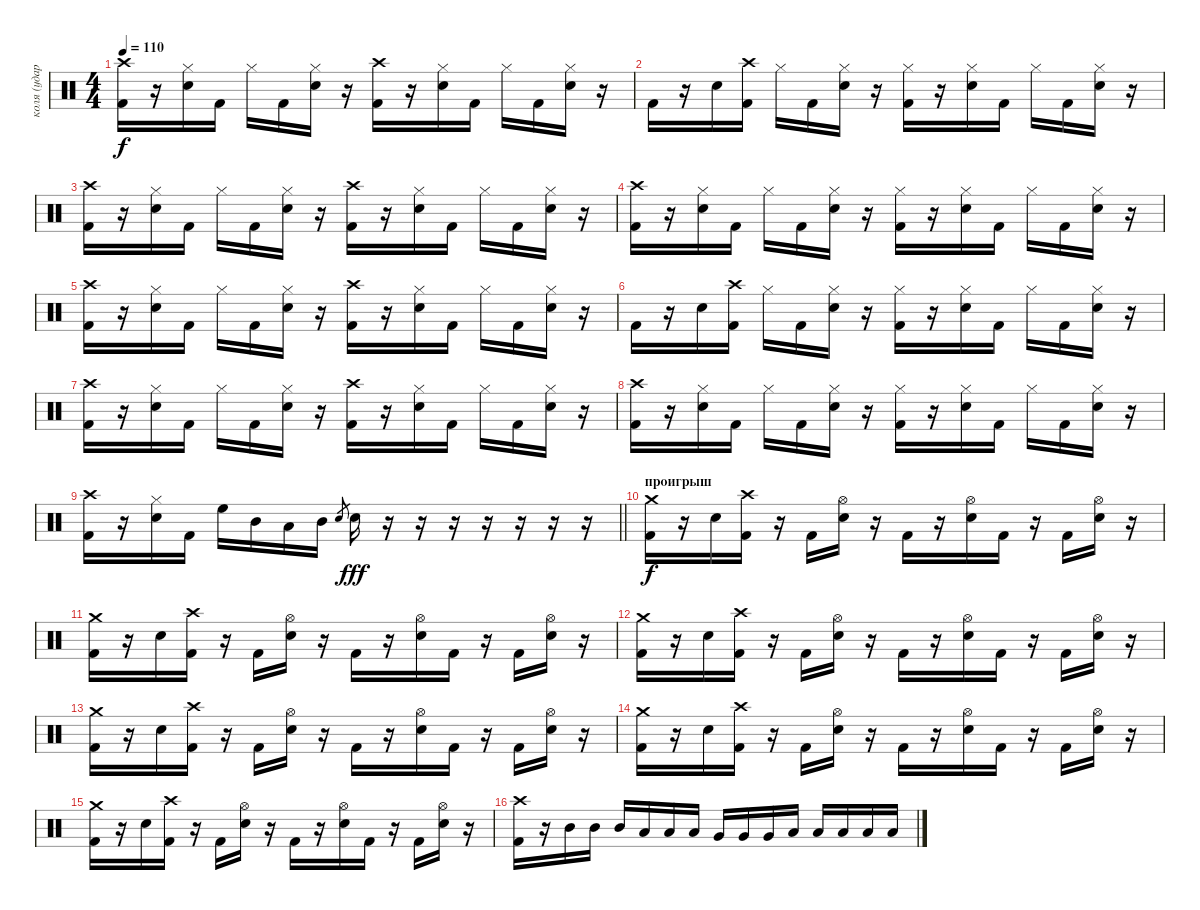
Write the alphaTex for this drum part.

\track ("коля (ударные)" "коля (удар") {instrument percussion}
\staff {score}
\articulation defaults
\ts (4 4)
\tempo 110
\clef neutral
\ks c
("Kick (hit) 2" "Crash high (hit)").16{dy f} r.16 ("Snare (hit) 2" "Hi-Hat (closed)").16 "Kick (hit) 2".16 "Hi-Hat (closed)".16 "Kick (hit) 2".16 ("Snare (hit) 2" "Hi-Hat (closed)").16 r.16 ("Kick (hit) 2" "Crash high (hit)").16 r.16 ("Snare (hit) 2" "Hi-Hat (closed)").16 "Kick (hit) 2".16 "Hi-Hat (closed)".16 "Kick (hit) 2".16 ("Snare (hit) 2" "Hi-Hat (closed)").16 r.16 |
"Kick (hit) 2".16 r.16 "Snare (hit) 2".16 ("Kick (hit) 2" "Crash high (hit)").16 "Hi-Hat (closed)".16 "Kick (hit) 2".16 ("Snare (hit) 2" "Hi-Hat (closed)").16 r.16 ("Kick (hit) 2" "Hi-Hat (closed)").16 r.16 ("Snare (hit) 2" "Hi-Hat (closed)").16 "Kick (hit) 2".16 "Hi-Hat (closed)".16 "Kick (hit) 2".16 ("Snare (hit) 2" "Hi-Hat (closed)").16 r.16 |
("Kick (hit) 2" "Crash high (hit)").16 r.16 ("Snare (hit) 2" "Hi-Hat (closed)").16 "Kick (hit) 2".16 "Hi-Hat (closed)".16 "Kick (hit) 2".16 ("Snare (hit) 2" "Hi-Hat (closed)").16 r.16 ("Kick (hit) 2" "Crash high (hit)").16 r.16 ("Snare (hit) 2" "Hi-Hat (closed)").16 "Kick (hit) 2".16 "Hi-Hat (closed)".16 "Kick (hit) 2".16 ("Snare (hit) 2" "Hi-Hat (closed)").16 r.16 |
("Kick (hit) 2" "Crash high (hit)").16 r.16 ("Snare (hit) 2" "Hi-Hat (closed)").16 "Kick (hit) 2".16 "Hi-Hat (closed)".16 "Kick (hit) 2".16 ("Snare (hit) 2" "Hi-Hat (closed)").16 r.16 ("Kick (hit) 2" "Hi-Hat (closed)").16 r.16 ("Snare (hit) 2" "Hi-Hat (closed)").16 "Kick (hit) 2".16 "Hi-Hat (closed)".16 "Kick (hit) 2".16 ("Snare (hit) 2" "Hi-Hat (closed)").16 r.16 |
("Kick (hit) 2" "Crash high (hit)").16 r.16 ("Snare (hit) 2" "Hi-Hat (closed)").16 "Kick (hit) 2".16 "Hi-Hat (closed)".16 "Kick (hit) 2".16 ("Snare (hit) 2" "Hi-Hat (closed)").16 r.16 ("Kick (hit) 2" "Crash high (hit)").16 r.16 ("Snare (hit) 2" "Hi-Hat (closed)").16 "Kick (hit) 2".16 "Hi-Hat (closed)".16 "Kick (hit) 2".16 ("Snare (hit) 2" "Hi-Hat (closed)").16 r.16 |
"Kick (hit) 2".16 r.16 "Snare (hit) 2".16 ("Kick (hit) 2" "Crash high (hit)").16 "Hi-Hat (closed)".16 "Kick (hit) 2".16 ("Snare (hit) 2" "Hi-Hat (closed)").16 r.16 ("Kick (hit) 2" "Hi-Hat (closed)").16 r.16 ("Snare (hit) 2" "Hi-Hat (closed)").16 "Kick (hit) 2".16 "Hi-Hat (closed)".16 "Kick (hit) 2".16 ("Snare (hit) 2" "Hi-Hat (closed)").16 r.16 |
("Kick (hit) 2" "Crash high (hit)").16 r.16 ("Snare (hit) 2" "Hi-Hat (closed)").16 "Kick (hit) 2".16 "Hi-Hat (closed)".16 "Kick (hit) 2".16 ("Snare (hit) 2" "Hi-Hat (closed)").16 r.16 ("Kick (hit) 2" "Crash high (hit)").16 r.16 ("Snare (hit) 2" "Hi-Hat (closed)").16 "Kick (hit) 2".16 "Hi-Hat (closed)".16 "Kick (hit) 2".16 ("Snare (hit) 2" "Hi-Hat (closed)").16 r.16 |
("Kick (hit) 2" "Crash high (hit)").16 r.16 ("Snare (hit) 2" "Hi-Hat (closed)").16 "Kick (hit) 2".16 "Hi-Hat (closed)".16 "Kick (hit) 2".16 ("Snare (hit) 2" "Hi-Hat (closed)").16 r.16 ("Kick (hit) 2" "Hi-Hat (closed)").16 r.16 ("Snare (hit) 2" "Hi-Hat (closed)").16 "Kick (hit) 2".16 "Hi-Hat (closed)".16 "Kick (hit) 2".16 ("Snare (hit) 2" "Hi-Hat (closed)").16 r.16 |
\barLineRight lightlight
("Kick (hit) 2" "Crash high (hit)").16 r.16 ("Snare (hit) 2" "Hi-Hat (closed)").16 "Kick (hit) 2".16 "High Floor Tom (hit)".16 "Mid Tom (hit)".16 "Low Tom (hit)".16 "Mid Tom (hit)".16 "Snare (hit) 2".8{gr} "Snare (hit) 2".16{dy fff} r.16 r.16 r.16 r.16 r.16 r.16 r.16 |
\section ("" "проигрыш")
("Kick (hit) 2" "Crash medium (hit)").16{dy f} r.16 "Snare (hit) 2".16 ("Kick (hit) 2" "Crash high (hit)").16 r.16 "Kick (hit) 2".16 ("Snare (hit) 2" "Hi-Hat (open)").16 r.16 "Kick (hit) 2".16 r.16 ("Snare (hit) 2" "Hi-Hat (open)").16 "Kick (hit) 2".16 r.16 "Kick (hit) 2".16 ("Snare (hit) 2" "Hi-Hat (open)").16 r.16 |
("Kick (hit) 2" "Crash medium (hit)").16 r.16 "Snare (hit) 2".16 ("Kick (hit) 2" "Crash high (hit)").16 r.16 "Kick (hit) 2".16 ("Snare (hit) 2" "Hi-Hat (open)").16 r.16 "Kick (hit) 2".16 r.16 ("Snare (hit) 2" "Hi-Hat (open)").16 "Kick (hit) 2".16 r.16 "Kick (hit) 2".16 ("Snare (hit) 2" "Hi-Hat (open)").16 r.16 |
("Kick (hit) 2" "Crash medium (hit)").16 r.16 "Snare (hit) 2".16 ("Kick (hit) 2" "Crash high (hit)").16 r.16 "Kick (hit) 2".16 ("Snare (hit) 2" "Hi-Hat (open)").16 r.16 "Kick (hit) 2".16 r.16 ("Snare (hit) 2" "Hi-Hat (open)").16 "Kick (hit) 2".16 r.16 "Kick (hit) 2".16 ("Snare (hit) 2" "Hi-Hat (open)").16 r.16 |
("Kick (hit) 2" "Crash medium (hit)").16 r.16 "Snare (hit) 2".16 ("Kick (hit) 2" "Crash high (hit)").16 r.16 "Kick (hit) 2".16 ("Snare (hit) 2" "Hi-Hat (open)").16 r.16 "Kick (hit) 2".16 r.16 ("Snare (hit) 2" "Hi-Hat (open)").16 "Kick (hit) 2".16 r.16 "Kick (hit) 2".16 ("Snare (hit) 2" "Hi-Hat (open)").16 r.16 |
("Kick (hit) 2" "Crash medium (hit)").16 r.16 "Snare (hit) 2".16 ("Kick (hit) 2" "Crash high (hit)").16 r.16 "Kick (hit) 2".16 ("Snare (hit) 2" "Hi-Hat (open)").16 r.16 "Kick (hit) 2".16 r.16 ("Snare (hit) 2" "Hi-Hat (open)").16 "Kick (hit) 2".16 r.16 "Kick (hit) 2".16 ("Snare (hit) 2" "Hi-Hat (open)").16 r.16 |
("Kick (hit) 2" "Crash medium (hit)").16 r.16 "Snare (hit) 2".16 ("Kick (hit) 2" "Crash high (hit)").16 r.16 "Kick (hit) 2".16 ("Snare (hit) 2" "Hi-Hat (open)").16 r.16 "Kick (hit) 2".16 r.16 ("Snare (hit) 2" "Hi-Hat (open)").16 "Kick (hit) 2".16 r.16 "Kick (hit) 2".16 ("Snare (hit) 2" "Hi-Hat (open)").16 r.16 |
("Kick (hit) 2" "Crash high (hit)").16 r.16 "Mid Tom (hit)".16 "Mid Tom (hit)".16 "Mid Tom (hit)".16 "Low Tom (hit)".16 "Low Tom (hit)".16 "Low Tom (hit)".16 "Very Low Tom (hit)".16 "Very Low Tom (hit)".16 "Very Low Tom (hit)".16 "Low Floor Tom (hit)".16 "Low Floor Tom (hit)".16 "Low Floor Tom (hit)".16 "Low Floor Tom (hit)".16 "Low Floor Tom (hit)".16
